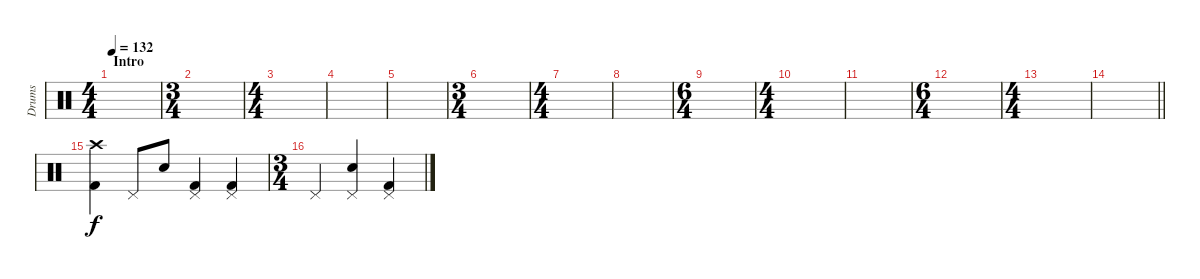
\track ("Drums" "Drums") {instrument percussion}
\staff {score}
\articulation defaults
\ts (4 4)
\section ("" "Intro")
\tempo 132
\clef neutral
\ks c
|
\ts (3 4)
|
\ts (4 4)
|
|
|
\ts (3 4)
|
\ts (4 4)
|
|
\ts (6 4)
|
\ts (4 4)
|
|
\ts (6 4)
|
\ts (4 4)
|
\barLineRight lightlight
|
("Crash high (hit)" "Kick (hit) 2").4 "Pedal Hi-Hat (hit)".8 "Snare (hit) 2".8 ("Pedal Hi-Hat (hit)" "Kick (hit) 2").4 ("Pedal Hi-Hat (hit)" "Kick (hit) 2").4 |
\ts (3 4)
"Pedal Hi-Hat (hit)".4 ("Pedal Hi-Hat (hit)" "Snare (hit) 2").4 ("Pedal Hi-Hat (hit)" "Kick (hit) 2").4
